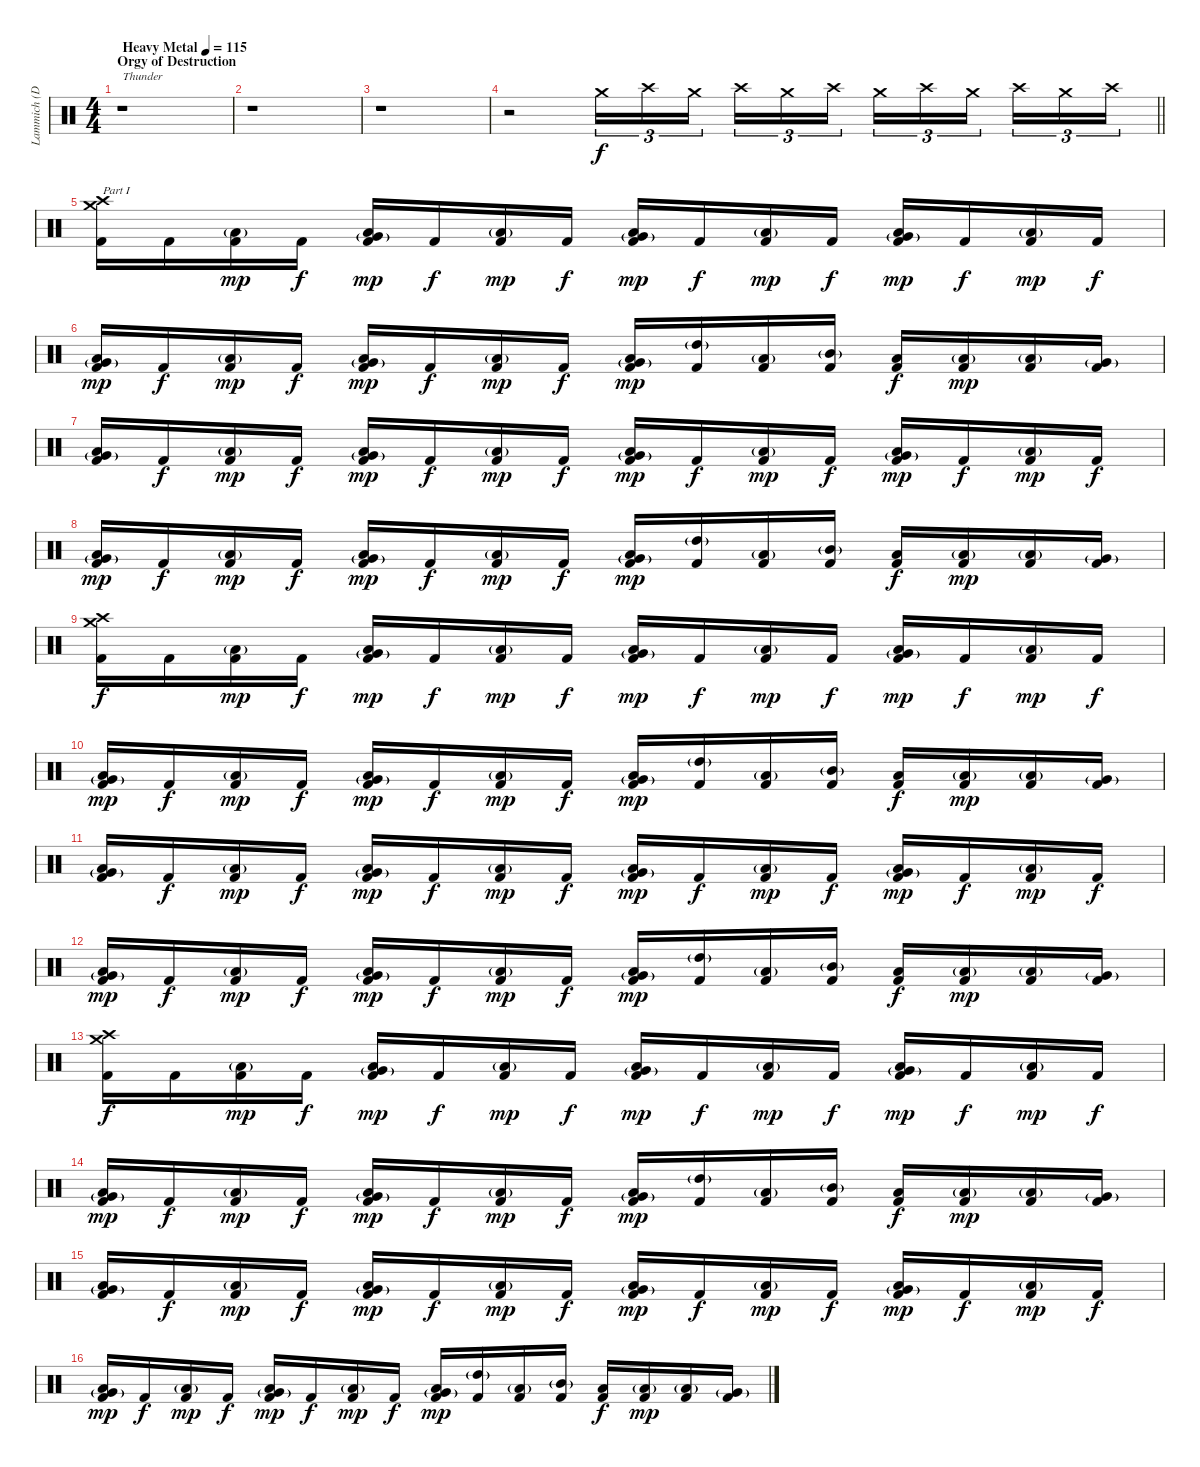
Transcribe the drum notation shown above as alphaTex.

\track ("Lammich (Drums)" "Lammich (D") {instrument percussion}
\staff {score}
\articulation defaults
\ts (4 4)
\section ("" "Orgy of Destruction")
\tempo (115 "Heavy Metal")
\tempo 120
\tempo (115 "Heavy Metal")
\clef neutral
\ks c
r.1{txt "Thunder" dy f volume 0 balance 8} |
r.1 |
r.1 |
\barLineRight lightlight
r.2 "Crash medium (hit)".16{tu (3 2) volume 16} "Crash high (hit)".16{tu (3 2)} "Crash medium (hit)".16{tu (3 2) beam splitsecondary} "Crash high (hit)".16{tu (3 2)} "Crash medium (hit)".16{tu (3 2)} "Crash high (hit)".16{tu (3 2)} "Crash medium (hit)".16{tu (3 2)} "Crash high (hit)".16{tu (3 2)} "Crash medium (hit)".16{tu (3 2) beam splitsecondary} "Crash high (hit)".16{tu (3 2)} "Crash medium (hit)".16{tu (3 2)} "Crash high (hit)".16{tu (3 2)} |
("Crash medium (hit)" "Crash high (hit)" "Kick (hit) 2").16{txt "Part I" balance 8} "Kick (hit) 2".16 ("Low Floor Tom (hit)"{g} "Kick (hit) 2").16{dy mp} "Kick (hit) 2".16{dy f} ("Very Low Tom (hit)"{g} "Low Floor Tom (hit)" "Kick (hit) 2").16{dy mp} "Kick (hit) 2".16{dy f} ("Low Floor Tom (hit)"{g} "Kick (hit) 2").16{dy mp} "Kick (hit) 2".16{dy f} ("Very Low Tom (hit)"{g} "Low Floor Tom (hit)" "Kick (hit) 2").16{dy mp} "Kick (hit) 2".16{dy f} ("Low Floor Tom (hit)"{g} "Kick (hit) 2").16{dy mp} "Kick (hit) 2".16{dy f} ("Very Low Tom (hit)"{g} "Low Floor Tom (hit)" "Kick (hit) 2").16{dy mp} "Kick (hit) 2".16{dy f} ("Low Floor Tom (hit)"{g} "Kick (hit) 2").16{dy mp} "Kick (hit) 2".16{dy f} |
("Very Low Tom (hit)"{g} "Low Floor Tom (hit)" "Kick (hit) 2").16{dy mp} "Kick (hit) 2".16{dy f} ("Low Floor Tom (hit)"{g} "Kick (hit) 2").16{dy mp} "Kick (hit) 2".16{dy f} ("Very Low Tom (hit)"{g} "Low Floor Tom (hit)" "Kick (hit) 2").16{dy mp} "Kick (hit) 2".16{dy f} ("Low Floor Tom (hit)"{g} "Kick (hit) 2").16{dy mp} "Kick (hit) 2".16{dy f} ("Very Low Tom (hit)"{g} "Low Floor Tom (hit)" "Kick (hit) 2").16{dy mp} ("High Tom (hit)"{g} "Kick (hit) 2").16 ("Low Floor Tom (hit)"{g} "Kick (hit) 2").16 ("Mid Tom (hit)"{g} "Kick (hit) 2").16 ("Low Floor Tom (hit)" "Kick (hit) 2").16{dy f} ("Low Tom (hit)"{g} "Kick (hit) 2").16{dy mp} ("Low Floor Tom (hit)"{g} "Kick (hit) 2").16 ("Very Low Tom (hit)"{g} "Kick (hit) 2").16 |
("Very Low Tom (hit)"{g} "Low Floor Tom (hit)" "Kick (hit) 2").16 "Kick (hit) 2".16{dy f} ("Low Floor Tom (hit)"{g} "Kick (hit) 2").16{dy mp} "Kick (hit) 2".16{dy f} ("Very Low Tom (hit)"{g} "Low Floor Tom (hit)" "Kick (hit) 2").16{dy mp} "Kick (hit) 2".16{dy f} ("Low Floor Tom (hit)"{g} "Kick (hit) 2").16{dy mp} "Kick (hit) 2".16{dy f} ("Very Low Tom (hit)"{g} "Low Floor Tom (hit)" "Kick (hit) 2").16{dy mp} "Kick (hit) 2".16{dy f} ("Low Floor Tom (hit)"{g} "Kick (hit) 2").16{dy mp} "Kick (hit) 2".16{dy f} ("Very Low Tom (hit)"{g} "Low Floor Tom (hit)" "Kick (hit) 2").16{dy mp} "Kick (hit) 2".16{dy f} ("Low Floor Tom (hit)"{g} "Kick (hit) 2").16{dy mp} "Kick (hit) 2".16{dy f} |
("Very Low Tom (hit)"{g} "Low Floor Tom (hit)" "Kick (hit) 2").16{dy mp} "Kick (hit) 2".16{dy f} ("Low Floor Tom (hit)"{g} "Kick (hit) 2").16{dy mp} "Kick (hit) 2".16{dy f} ("Very Low Tom (hit)"{g} "Low Floor Tom (hit)" "Kick (hit) 2").16{dy mp} "Kick (hit) 2".16{dy f} ("Low Floor Tom (hit)"{g} "Kick (hit) 2").16{dy mp} "Kick (hit) 2".16{dy f} ("Very Low Tom (hit)"{g} "Low Floor Tom (hit)" "Kick (hit) 2").16{dy mp} ("High Tom (hit)"{g} "Kick (hit) 2").16 ("Low Floor Tom (hit)"{g} "Kick (hit) 2").16 ("Mid Tom (hit)"{g} "Kick (hit) 2").16 ("Low Floor Tom (hit)" "Kick (hit) 2").16{dy f} ("Low Tom (hit)"{g} "Kick (hit) 2").16{dy mp} ("Low Floor Tom (hit)"{g} "Kick (hit) 2").16 ("Very Low Tom (hit)"{g} "Kick (hit) 2").16 |
("Crash medium (hit)" "Crash high (hit)" "Kick (hit) 2").16{dy f} "Kick (hit) 2".16 ("Low Floor Tom (hit)"{g} "Kick (hit) 2").16{dy mp} "Kick (hit) 2".16{dy f} ("Very Low Tom (hit)"{g} "Low Floor Tom (hit)" "Kick (hit) 2").16{dy mp} "Kick (hit) 2".16{dy f} ("Low Floor Tom (hit)"{g} "Kick (hit) 2").16{dy mp} "Kick (hit) 2".16{dy f} ("Very Low Tom (hit)"{g} "Low Floor Tom (hit)" "Kick (hit) 2").16{dy mp} "Kick (hit) 2".16{dy f} ("Low Floor Tom (hit)"{g} "Kick (hit) 2").16{dy mp} "Kick (hit) 2".16{dy f} ("Very Low Tom (hit)"{g} "Low Floor Tom (hit)" "Kick (hit) 2").16{dy mp} "Kick (hit) 2".16{dy f} ("Low Floor Tom (hit)"{g} "Kick (hit) 2").16{dy mp} "Kick (hit) 2".16{dy f} |
("Very Low Tom (hit)"{g} "Low Floor Tom (hit)" "Kick (hit) 2").16{dy mp} "Kick (hit) 2".16{dy f} ("Low Floor Tom (hit)"{g} "Kick (hit) 2").16{dy mp} "Kick (hit) 2".16{dy f} ("Very Low Tom (hit)"{g} "Low Floor Tom (hit)" "Kick (hit) 2").16{dy mp} "Kick (hit) 2".16{dy f} ("Low Floor Tom (hit)"{g} "Kick (hit) 2").16{dy mp} "Kick (hit) 2".16{dy f} ("Very Low Tom (hit)"{g} "Low Floor Tom (hit)" "Kick (hit) 2").16{dy mp} ("High Tom (hit)"{g} "Kick (hit) 2").16 ("Low Floor Tom (hit)"{g} "Kick (hit) 2").16 ("Mid Tom (hit)"{g} "Kick (hit) 2").16 ("Low Floor Tom (hit)" "Kick (hit) 2").16{dy f} ("Low Tom (hit)"{g} "Kick (hit) 2").16{dy mp} ("Low Floor Tom (hit)"{g} "Kick (hit) 2").16 ("Very Low Tom (hit)"{g} "Kick (hit) 2").16 |
("Very Low Tom (hit)"{g} "Low Floor Tom (hit)" "Kick (hit) 2").16 "Kick (hit) 2".16{dy f} ("Low Floor Tom (hit)"{g} "Kick (hit) 2").16{dy mp} "Kick (hit) 2".16{dy f} ("Very Low Tom (hit)"{g} "Low Floor Tom (hit)" "Kick (hit) 2").16{dy mp} "Kick (hit) 2".16{dy f} ("Low Floor Tom (hit)"{g} "Kick (hit) 2").16{dy mp} "Kick (hit) 2".16{dy f} ("Very Low Tom (hit)"{g} "Low Floor Tom (hit)" "Kick (hit) 2").16{dy mp} "Kick (hit) 2".16{dy f} ("Low Floor Tom (hit)"{g} "Kick (hit) 2").16{dy mp} "Kick (hit) 2".16{dy f} ("Very Low Tom (hit)"{g} "Low Floor Tom (hit)" "Kick (hit) 2").16{dy mp} "Kick (hit) 2".16{dy f} ("Low Floor Tom (hit)"{g} "Kick (hit) 2").16{dy mp} "Kick (hit) 2".16{dy f} |
("Very Low Tom (hit)"{g} "Low Floor Tom (hit)" "Kick (hit) 2").16{dy mp} "Kick (hit) 2".16{dy f} ("Low Floor Tom (hit)"{g} "Kick (hit) 2").16{dy mp} "Kick (hit) 2".16{dy f} ("Very Low Tom (hit)"{g} "Low Floor Tom (hit)" "Kick (hit) 2").16{dy mp} "Kick (hit) 2".16{dy f} ("Low Floor Tom (hit)"{g} "Kick (hit) 2").16{dy mp} "Kick (hit) 2".16{dy f} ("Very Low Tom (hit)"{g} "Low Floor Tom (hit)" "Kick (hit) 2").16{dy mp} ("High Tom (hit)"{g} "Kick (hit) 2").16 ("Low Floor Tom (hit)"{g} "Kick (hit) 2").16 ("Mid Tom (hit)"{g} "Kick (hit) 2").16 ("Low Floor Tom (hit)" "Kick (hit) 2").16{dy f} ("Low Tom (hit)"{g} "Kick (hit) 2").16{dy mp} ("Low Floor Tom (hit)"{g} "Kick (hit) 2").16 ("Very Low Tom (hit)"{g} "Kick (hit) 2").16 |
("Crash medium (hit)" "Crash high (hit)" "Kick (hit) 2").16{dy f} "Kick (hit) 2".16 ("Low Floor Tom (hit)"{g} "Kick (hit) 2").16{dy mp} "Kick (hit) 2".16{dy f} ("Very Low Tom (hit)"{g} "Low Floor Tom (hit)" "Kick (hit) 2").16{dy mp} "Kick (hit) 2".16{dy f} ("Low Floor Tom (hit)"{g} "Kick (hit) 2").16{dy mp} "Kick (hit) 2".16{dy f} ("Very Low Tom (hit)"{g} "Low Floor Tom (hit)" "Kick (hit) 2").16{dy mp} "Kick (hit) 2".16{dy f} ("Low Floor Tom (hit)"{g} "Kick (hit) 2").16{dy mp} "Kick (hit) 2".16{dy f} ("Very Low Tom (hit)"{g} "Low Floor Tom (hit)" "Kick (hit) 2").16{dy mp} "Kick (hit) 2".16{dy f} ("Low Floor Tom (hit)"{g} "Kick (hit) 2").16{dy mp} "Kick (hit) 2".16{dy f} |
("Very Low Tom (hit)"{g} "Low Floor Tom (hit)" "Kick (hit) 2").16{dy mp} "Kick (hit) 2".16{dy f} ("Low Floor Tom (hit)"{g} "Kick (hit) 2").16{dy mp} "Kick (hit) 2".16{dy f} ("Very Low Tom (hit)"{g} "Low Floor Tom (hit)" "Kick (hit) 2").16{dy mp} "Kick (hit) 2".16{dy f} ("Low Floor Tom (hit)"{g} "Kick (hit) 2").16{dy mp} "Kick (hit) 2".16{dy f} ("Very Low Tom (hit)"{g} "Low Floor Tom (hit)" "Kick (hit) 2").16{dy mp} ("High Tom (hit)"{g} "Kick (hit) 2").16 ("Low Floor Tom (hit)"{g} "Kick (hit) 2").16 ("Mid Tom (hit)"{g} "Kick (hit) 2").16 ("Low Floor Tom (hit)" "Kick (hit) 2").16{dy f} ("Low Tom (hit)"{g} "Kick (hit) 2").16{dy mp} ("Low Floor Tom (hit)"{g} "Kick (hit) 2").16 ("Very Low Tom (hit)"{g} "Kick (hit) 2").16 |
("Very Low Tom (hit)"{g} "Low Floor Tom (hit)" "Kick (hit) 2").16 "Kick (hit) 2".16{dy f} ("Low Floor Tom (hit)"{g} "Kick (hit) 2").16{dy mp} "Kick (hit) 2".16{dy f} ("Very Low Tom (hit)"{g} "Low Floor Tom (hit)" "Kick (hit) 2").16{dy mp} "Kick (hit) 2".16{dy f} ("Low Floor Tom (hit)"{g} "Kick (hit) 2").16{dy mp} "Kick (hit) 2".16{dy f} ("Very Low Tom (hit)"{g} "Low Floor Tom (hit)" "Kick (hit) 2").16{dy mp} "Kick (hit) 2".16{dy f} ("Low Floor Tom (hit)"{g} "Kick (hit) 2").16{dy mp} "Kick (hit) 2".16{dy f} ("Very Low Tom (hit)"{g} "Low Floor Tom (hit)" "Kick (hit) 2").16{dy mp} "Kick (hit) 2".16{dy f} ("Low Floor Tom (hit)"{g} "Kick (hit) 2").16{dy mp} "Kick (hit) 2".16{dy f} |
("Very Low Tom (hit)"{g} "Low Floor Tom (hit)" "Kick (hit) 2").16{dy mp} "Kick (hit) 2".16{dy f} ("Low Floor Tom (hit)"{g} "Kick (hit) 2").16{dy mp} "Kick (hit) 2".16{dy f} ("Very Low Tom (hit)"{g} "Low Floor Tom (hit)" "Kick (hit) 2").16{dy mp} "Kick (hit) 2".16{dy f} ("Low Floor Tom (hit)"{g} "Kick (hit) 2").16{dy mp} "Kick (hit) 2".16{dy f} ("Very Low Tom (hit)"{g} "Low Floor Tom (hit)" "Kick (hit) 2").16{dy mp} ("High Tom (hit)"{g} "Kick (hit) 2").16 ("Low Floor Tom (hit)"{g} "Kick (hit) 2").16 ("Mid Tom (hit)"{g} "Kick (hit) 2").16 ("Low Floor Tom (hit)" "Kick (hit) 2").16{dy f} ("Low Tom (hit)"{g} "Kick (hit) 2").16{dy mp} ("Low Floor Tom (hit)"{g} "Kick (hit) 2").16 ("Very Low Tom (hit)"{g} "Kick (hit) 2").16
